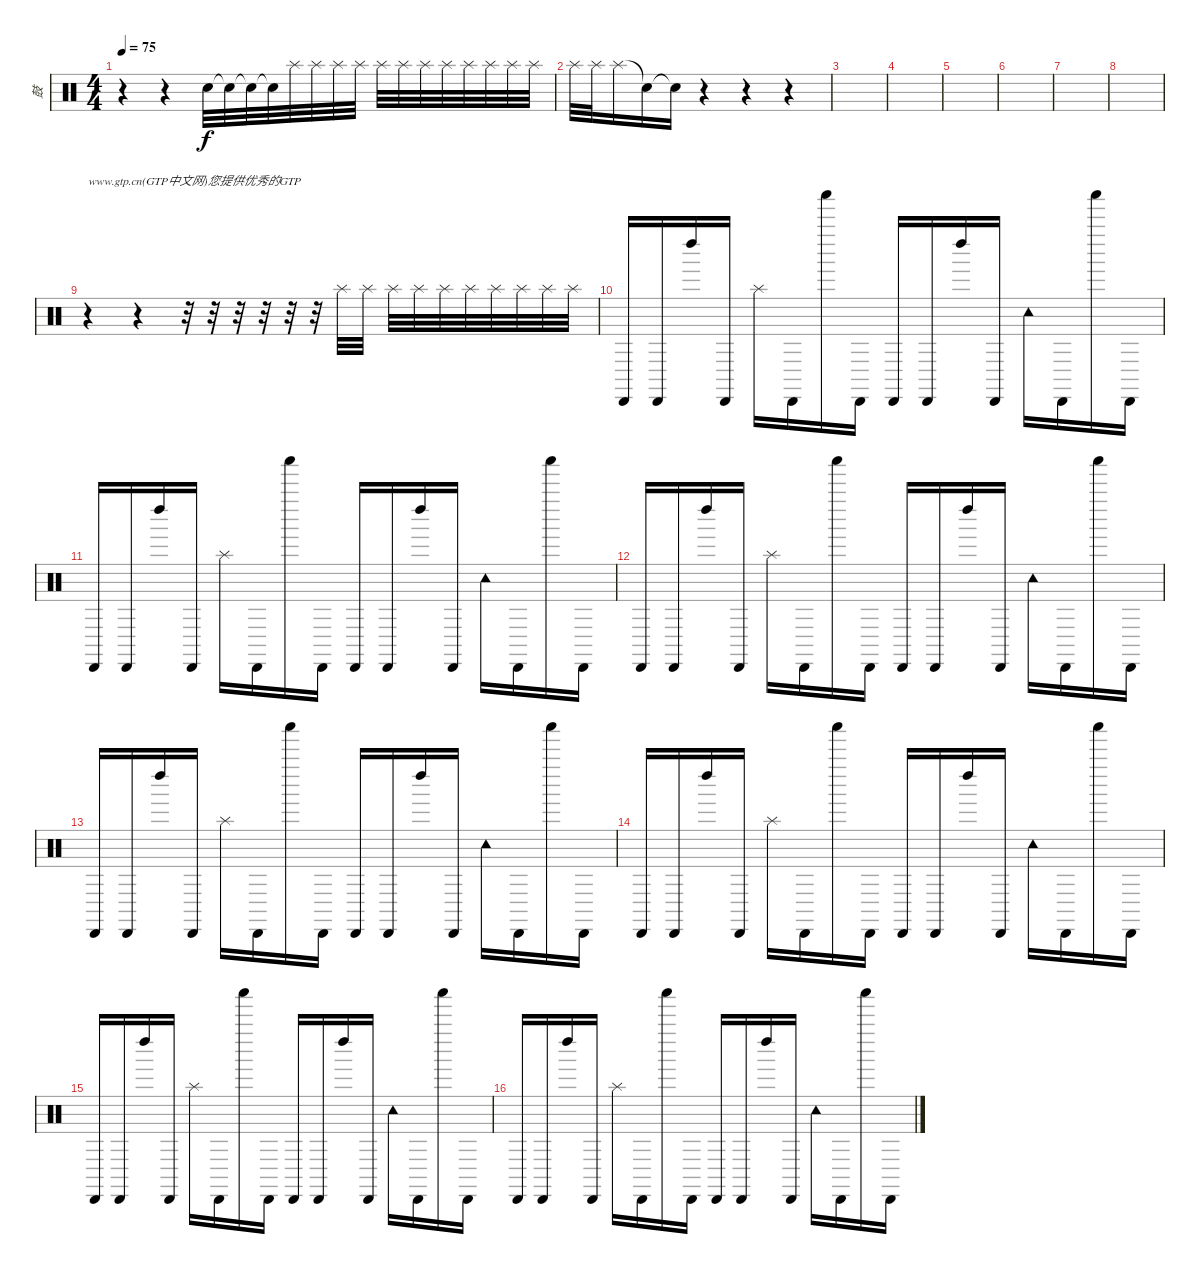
\track ("鼓" "鼓") {instrument percussion}
\staff {score}
\articulation defaults
\ts (4 4)
\tempo 75
\clef neutral
\ks c
r.4{dy f} r.4 "Snare (hit)".32 "Snare (hit)"{t}.32 "Snare (hit)"{t}.32 "Snare (hit)"{t}.32 "Splash (hit)".32 "Splash (hit)".32 "Splash (hit)".32 "Splash (hit)".32 "Splash (hit)".32 "Splash (hit)".32 "Splash (hit)".32 "Splash (hit)".32 "Splash (hit)".32 "Splash (hit)".32 "Splash (hit)".32 "Splash (hit)".32 |
"Splash (hit)".32 "Splash (hit)".32 "Splash (hit)".16 "Snare (hit)"{t}.16 "Snare (hit)"{t}.16 r.4 r.4 r.4 |
|
|
|
|
|
|
r.4{txt "www.gtp.cn(GTP中文网)您提供优秀的GTP"} r.4 r.32 r.32 r.32 r.32 r.32 r.32 "Splash (hit)".32 "Splash (hit)".32 "Splash (hit)".32 "Splash (hit)".32 "Splash (hit)".32 "Splash (hit)".32 "Splash (hit)".32 "Splash (hit)".32 "Splash (hit)".32 "Splash (hit)".32 |
"Cabasa (hit)".16 "Cabasa (hit)".16 "Left Maraca (hit)".16 "Cabasa (hit)".16 "Splash (hit)".16 "Cabasa (hit)".16 "Shaker (hit)".16 "Cabasa (hit)".16 "Cabasa (hit)".16 "Cabasa (hit)".16 "Left Maraca (hit)".16 "Cabasa (hit)".16 "Tambourine (hit)".16 "Cabasa (hit)".16 "Shaker (hit)".16 "Cabasa (hit)".16 |
"Cabasa (hit)".16 "Cabasa (hit)".16 "Left Maraca (hit)".16 "Cabasa (hit)".16 "Splash (hit)".16 "Cabasa (hit)".16 "Shaker (hit)".16 "Cabasa (hit)".16 "Cabasa (hit)".16 "Cabasa (hit)".16 "Left Maraca (hit)".16 "Cabasa (hit)".16 "Tambourine (hit)".16 "Cabasa (hit)".16 "Shaker (hit)".16 "Cabasa (hit)".16 |
"Cabasa (hit)".16 "Cabasa (hit)".16 "Left Maraca (hit)".16 "Cabasa (hit)".16 "Splash (hit)".16 "Cabasa (hit)".16 "Shaker (hit)".16 "Cabasa (hit)".16 "Cabasa (hit)".16 "Cabasa (hit)".16 "Left Maraca (hit)".16 "Cabasa (hit)".16 "Tambourine (hit)".16 "Cabasa (hit)".16 "Shaker (hit)".16 "Cabasa (hit)".16 |
"Cabasa (hit)".16 "Cabasa (hit)".16 "Left Maraca (hit)".16 "Cabasa (hit)".16 "Splash (hit)".16 "Cabasa (hit)".16 "Shaker (hit)".16 "Cabasa (hit)".16 "Cabasa (hit)".16 "Cabasa (hit)".16 "Left Maraca (hit)".16 "Cabasa (hit)".16 "Tambourine (hit)".16 "Cabasa (hit)".16 "Shaker (hit)".16 "Cabasa (hit)".16 |
"Cabasa (hit)".16 "Cabasa (hit)".16 "Left Maraca (hit)".16 "Cabasa (hit)".16 "Splash (hit)".16 "Cabasa (hit)".16 "Shaker (hit)".16 "Cabasa (hit)".16 "Cabasa (hit)".16 "Cabasa (hit)".16 "Left Maraca (hit)".16 "Cabasa (hit)".16 "Tambourine (hit)".16 "Cabasa (hit)".16 "Shaker (hit)".16 "Cabasa (hit)".16 |
"Cabasa (hit)".16 "Cabasa (hit)".16 "Left Maraca (hit)".16 "Cabasa (hit)".16 "Splash (hit)".16 "Cabasa (hit)".16 "Shaker (hit)".16 "Cabasa (hit)".16 "Cabasa (hit)".16 "Cabasa (hit)".16 "Left Maraca (hit)".16 "Cabasa (hit)".16 "Tambourine (hit)".16 "Cabasa (hit)".16 "Shaker (hit)".16 "Cabasa (hit)".16 |
"Cabasa (hit)".16 "Cabasa (hit)".16 "Left Maraca (hit)".16 "Cabasa (hit)".16 "Splash (hit)".16 "Cabasa (hit)".16 "Shaker (hit)".16 "Cabasa (hit)".16 "Cabasa (hit)".16 "Cabasa (hit)".16 "Left Maraca (hit)".16 "Cabasa (hit)".16 "Tambourine (hit)".16 "Cabasa (hit)".16 "Shaker (hit)".16 "Cabasa (hit)".16
